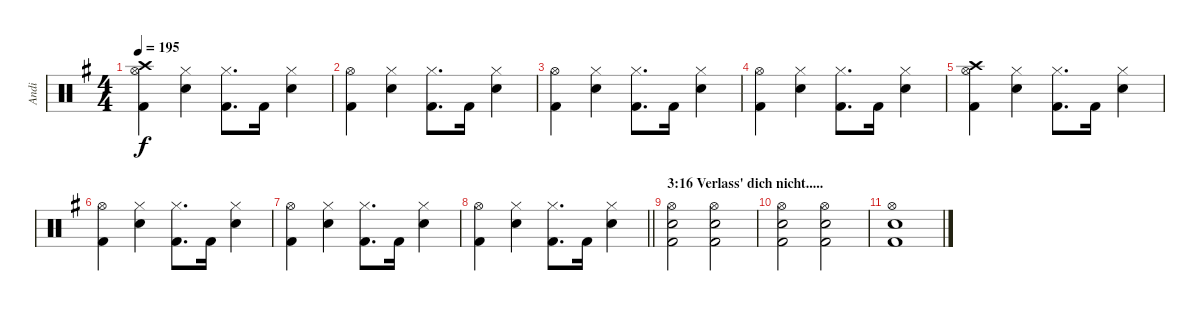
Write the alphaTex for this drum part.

\track ("Andi" "Andi") {instrument percussion}
\staff {score}
\articulation defaults
\ts (4 4)
\tempo 195
\clef neutral
\ks g
("Crash high (hit)" "Hi-Hat (open)" "Kick (hit) 2").4{dy f} ("Hi-Hat (closed)" "Snare (hit) 2").4 ("Hi-Hat (closed)" "Kick (hit) 2").8{d} "Kick (hit) 2".16 ("Hi-Hat (closed)" "Snare (hit) 2").4 |
("Hi-Hat (open)" "Kick (hit) 2").4 ("Hi-Hat (closed)" "Snare (hit) 2").4 ("Hi-Hat (closed)" "Kick (hit) 2").8{d} "Kick (hit) 2".16 ("Hi-Hat (closed)" "Snare (hit) 2").4 |
("Hi-Hat (open)" "Kick (hit) 2").4 ("Hi-Hat (closed)" "Snare (hit) 2").4 ("Hi-Hat (closed)" "Kick (hit) 2").8{d} "Kick (hit) 2".16 ("Hi-Hat (closed)" "Snare (hit) 2").4 |
("Hi-Hat (open)" "Kick (hit) 2").4 ("Hi-Hat (closed)" "Snare (hit) 2").4 ("Hi-Hat (closed)" "Kick (hit) 2").8{d} "Kick (hit) 2".16 ("Hi-Hat (closed)" "Snare (hit) 2").4 |
("Crash high (hit)" "Hi-Hat (open)" "Kick (hit) 2").4 ("Hi-Hat (closed)" "Snare (hit) 2").4 ("Hi-Hat (closed)" "Kick (hit) 2").8{d} "Kick (hit) 2".16 ("Hi-Hat (closed)" "Snare (hit) 2").4 |
("Hi-Hat (open)" "Kick (hit) 2").4 ("Hi-Hat (closed)" "Snare (hit) 2").4 ("Hi-Hat (closed)" "Kick (hit) 2").8{d} "Kick (hit) 2".16 ("Hi-Hat (closed)" "Snare (hit) 2").4 |
("Hi-Hat (open)" "Kick (hit) 2").4 ("Hi-Hat (closed)" "Snare (hit) 2").4 ("Hi-Hat (closed)" "Kick (hit) 2").8{d} "Kick (hit) 2".16 ("Hi-Hat (closed)" "Snare (hit) 2").4 |
\barLineRight lightlight
("Hi-Hat (open)" "Kick (hit) 2").4 ("Hi-Hat (closed)" "Snare (hit) 2").4 ("Hi-Hat (closed)" "Kick (hit) 2").8{d} "Kick (hit) 2".16 ("Hi-Hat (closed)" "Snare (hit) 2").4 |
\section ("" "3:16 Verlass' dich nicht.....")
("Hi-Hat (open)" "Snare (hit) 2" "Kick (hit) 2").2 ("Hi-Hat (open)" "Snare (hit) 2" "Kick (hit) 2").2 |
("Hi-Hat (open)" "Snare (hit) 2" "Kick (hit) 2").2 ("Hi-Hat (open)" "Snare (hit) 2" "Kick (hit) 2").2 |
("Hi-Hat (open)" "Snare (hit) 2" "Kick (hit) 2").1
